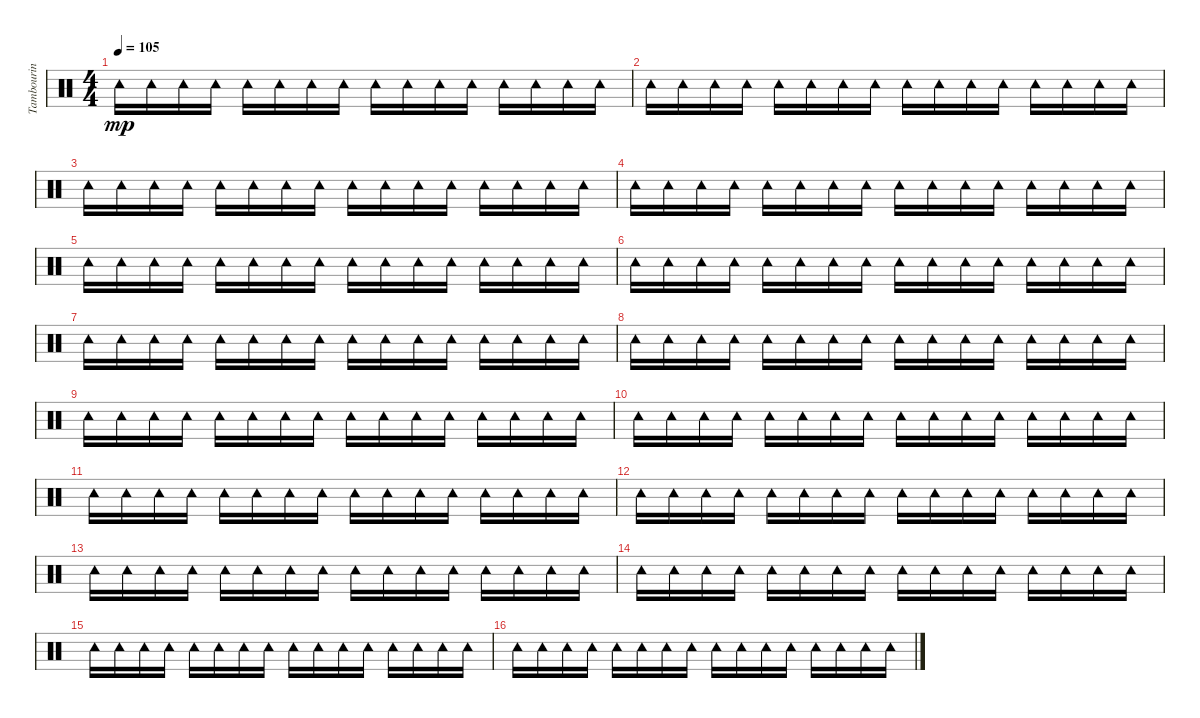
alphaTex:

\track ("Tambourin" "Tambourin") {instrument percussion}
\staff {score}
\articulation defaults
\ts (4 4)
\tempo 105
\clef neutral
\ks c "Tambourine (hit)".16{dy mp} "Tambourine (hit)".16 "Tambourine (hit)".16 "Tambourine (hit)".16 "Tambourine (hit)".16 "Tambourine (hit)".16 "Tambourine (hit)".16 "Tambourine (hit)".16 "Tambourine (hit)".16 "Tambourine (hit)".16 "Tambourine (hit)".16 "Tambourine (hit)".16 "Tambourine (hit)".16 "Tambourine (hit)".16 "Tambourine (hit)".16 "Tambourine (hit)".16
|
"Tambourine (hit)".16 "Tambourine (hit)".16 "Tambourine (hit)".16 "Tambourine (hit)".16 "Tambourine (hit)".16 "Tambourine (hit)".16 "Tambourine (hit)".16 "Tambourine (hit)".16 "Tambourine (hit)".16 "Tambourine (hit)".16 "Tambourine (hit)".16 "Tambourine (hit)".16 "Tambourine (hit)".16 "Tambourine (hit)".16 "Tambourine (hit)".16 "Tambourine (hit)".16 |
"Tambourine (hit)".16 "Tambourine (hit)".16 "Tambourine (hit)".16 "Tambourine (hit)".16 "Tambourine (hit)".16 "Tambourine (hit)".16 "Tambourine (hit)".16 "Tambourine (hit)".16 "Tambourine (hit)".16 "Tambourine (hit)".16 "Tambourine (hit)".16 "Tambourine (hit)".16 "Tambourine (hit)".16 "Tambourine (hit)".16 "Tambourine (hit)".16 "Tambourine (hit)".16 |
"Tambourine (hit)".16 "Tambourine (hit)".16 "Tambourine (hit)".16 "Tambourine (hit)".16 "Tambourine (hit)".16 "Tambourine (hit)".16 "Tambourine (hit)".16 "Tambourine (hit)".16 "Tambourine (hit)".16 "Tambourine (hit)".16 "Tambourine (hit)".16 "Tambourine (hit)".16 "Tambourine (hit)".16 "Tambourine (hit)".16 "Tambourine (hit)".16 "Tambourine (hit)".16 |
"Tambourine (hit)".16 "Tambourine (hit)".16 "Tambourine (hit)".16 "Tambourine (hit)".16 "Tambourine (hit)".16 "Tambourine (hit)".16 "Tambourine (hit)".16 "Tambourine (hit)".16 "Tambourine (hit)".16 "Tambourine (hit)".16 "Tambourine (hit)".16 "Tambourine (hit)".16 "Tambourine (hit)".16 "Tambourine (hit)".16 "Tambourine (hit)".16 "Tambourine (hit)".16 |
"Tambourine (hit)".16 "Tambourine (hit)".16 "Tambourine (hit)".16 "Tambourine (hit)".16 "Tambourine (hit)".16 "Tambourine (hit)".16 "Tambourine (hit)".16 "Tambourine (hit)".16 "Tambourine (hit)".16 "Tambourine (hit)".16 "Tambourine (hit)".16 "Tambourine (hit)".16 "Tambourine (hit)".16 "Tambourine (hit)".16 "Tambourine (hit)".16 "Tambourine (hit)".16 |
"Tambourine (hit)".16 "Tambourine (hit)".16 "Tambourine (hit)".16 "Tambourine (hit)".16 "Tambourine (hit)".16 "Tambourine (hit)".16 "Tambourine (hit)".16 "Tambourine (hit)".16 "Tambourine (hit)".16 "Tambourine (hit)".16 "Tambourine (hit)".16 "Tambourine (hit)".16 "Tambourine (hit)".16 "Tambourine (hit)".16 "Tambourine (hit)".16 "Tambourine (hit)".16 |
"Tambourine (hit)".16 "Tambourine (hit)".16 "Tambourine (hit)".16 "Tambourine (hit)".16 "Tambourine (hit)".16 "Tambourine (hit)".16 "Tambourine (hit)".16 "Tambourine (hit)".16 "Tambourine (hit)".16 "Tambourine (hit)".16 "Tambourine (hit)".16 "Tambourine (hit)".16 "Tambourine (hit)".16 "Tambourine (hit)".16 "Tambourine (hit)".16 "Tambourine (hit)".16 |
"Tambourine (hit)".16 "Tambourine (hit)".16 "Tambourine (hit)".16 "Tambourine (hit)".16 "Tambourine (hit)".16 "Tambourine (hit)".16 "Tambourine (hit)".16 "Tambourine (hit)".16 "Tambourine (hit)".16 "Tambourine (hit)".16 "Tambourine (hit)".16 "Tambourine (hit)".16 "Tambourine (hit)".16 "Tambourine (hit)".16 "Tambourine (hit)".16 "Tambourine (hit)".16 |
"Tambourine (hit)".16 "Tambourine (hit)".16 "Tambourine (hit)".16 "Tambourine (hit)".16 "Tambourine (hit)".16 "Tambourine (hit)".16 "Tambourine (hit)".16 "Tambourine (hit)".16 "Tambourine (hit)".16 "Tambourine (hit)".16 "Tambourine (hit)".16 "Tambourine (hit)".16 "Tambourine (hit)".16 "Tambourine (hit)".16 "Tambourine (hit)".16 "Tambourine (hit)".16 |
"Tambourine (hit)".16 "Tambourine (hit)".16 "Tambourine (hit)".16 "Tambourine (hit)".16 "Tambourine (hit)".16 "Tambourine (hit)".16 "Tambourine (hit)".16 "Tambourine (hit)".16 "Tambourine (hit)".16 "Tambourine (hit)".16 "Tambourine (hit)".16 "Tambourine (hit)".16 "Tambourine (hit)".16 "Tambourine (hit)".16 "Tambourine (hit)".16 "Tambourine (hit)".16 |
"Tambourine (hit)".16 "Tambourine (hit)".16 "Tambourine (hit)".16 "Tambourine (hit)".16 "Tambourine (hit)".16 "Tambourine (hit)".16 "Tambourine (hit)".16 "Tambourine (hit)".16 "Tambourine (hit)".16 "Tambourine (hit)".16 "Tambourine (hit)".16 "Tambourine (hit)".16 "Tambourine (hit)".16 "Tambourine (hit)".16 "Tambourine (hit)".16 "Tambourine (hit)".16 |
"Tambourine (hit)".16 "Tambourine (hit)".16 "Tambourine (hit)".16 "Tambourine (hit)".16 "Tambourine (hit)".16 "Tambourine (hit)".16 "Tambourine (hit)".16 "Tambourine (hit)".16 "Tambourine (hit)".16 "Tambourine (hit)".16 "Tambourine (hit)".16 "Tambourine (hit)".16 "Tambourine (hit)".16 "Tambourine (hit)".16 "Tambourine (hit)".16 "Tambourine (hit)".16 |
"Tambourine (hit)".16 "Tambourine (hit)".16 "Tambourine (hit)".16 "Tambourine (hit)".16 "Tambourine (hit)".16 "Tambourine (hit)".16 "Tambourine (hit)".16 "Tambourine (hit)".16 "Tambourine (hit)".16 "Tambourine (hit)".16 "Tambourine (hit)".16 "Tambourine (hit)".16 "Tambourine (hit)".16 "Tambourine (hit)".16 "Tambourine (hit)".16 "Tambourine (hit)".16 |
"Tambourine (hit)".16 "Tambourine (hit)".16 "Tambourine (hit)".16 "Tambourine (hit)".16 "Tambourine (hit)".16 "Tambourine (hit)".16 "Tambourine (hit)".16 "Tambourine (hit)".16 "Tambourine (hit)".16 "Tambourine (hit)".16 "Tambourine (hit)".16 "Tambourine (hit)".16 "Tambourine (hit)".16 "Tambourine (hit)".16 "Tambourine (hit)".16 "Tambourine (hit)".16 |
"Tambourine (hit)".16 "Tambourine (hit)".16 "Tambourine (hit)".16 "Tambourine (hit)".16 "Tambourine (hit)".16 "Tambourine (hit)".16 "Tambourine (hit)".16 "Tambourine (hit)".16 "Tambourine (hit)".16 "Tambourine (hit)".16 "Tambourine (hit)".16 "Tambourine (hit)".16 "Tambourine (hit)".16 "Tambourine (hit)".16 "Tambourine (hit)".16 "Tambourine (hit)".16
